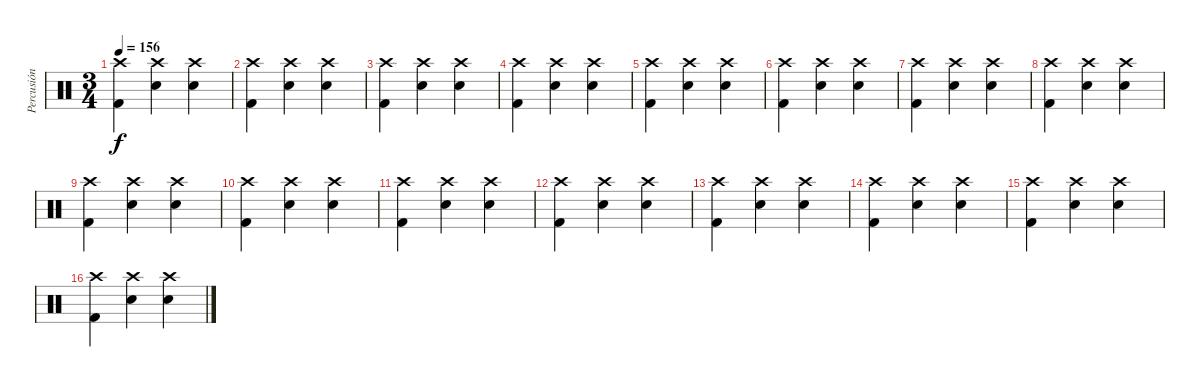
\track ("Percusión" "Percusión") {instrument percussion}
\staff {score}
\articulation defaults
\ts (3 4)
\tempo 156
\clef neutral
\ks c
("Crash high (hit)" "Kick (hit) 2").4{dy f} ("Crash high (hit)" "Electric Snare (hit)").4 ("Crash high (hit)" "Electric Snare (hit)").4 |
("Crash high (hit)" "Kick (hit) 2").4 ("Crash high (hit)" "Electric Snare (hit)").4 ("Crash high (hit)" "Electric Snare (hit)").4 |
("Crash high (hit)" "Kick (hit) 2").4 ("Crash high (hit)" "Electric Snare (hit)").4 ("Crash high (hit)" "Electric Snare (hit)").4 |
("Crash high (hit)" "Kick (hit) 2").4 ("Crash high (hit)" "Electric Snare (hit)").4 ("Crash high (hit)" "Electric Snare (hit)").4 |
("Crash high (hit)" "Kick (hit) 2").4 ("Crash high (hit)" "Electric Snare (hit)").4 ("Crash high (hit)" "Electric Snare (hit)").4 |
("Crash high (hit)" "Kick (hit) 2").4 ("Crash high (hit)" "Electric Snare (hit)").4 ("Crash high (hit)" "Electric Snare (hit)").4 |
("Crash high (hit)" "Kick (hit) 2").4 ("Crash high (hit)" "Electric Snare (hit)").4 ("Crash high (hit)" "Electric Snare (hit)").4 |
("Crash high (hit)" "Kick (hit) 2").4 ("Crash high (hit)" "Electric Snare (hit)").4 ("Crash high (hit)" "Electric Snare (hit)").4 |
("Crash high (hit)" "Kick (hit) 2").4 ("Crash high (hit)" "Electric Snare (hit)").4 ("Crash high (hit)" "Electric Snare (hit)").4 |
("Crash high (hit)" "Kick (hit) 2").4 ("Crash high (hit)" "Electric Snare (hit)").4 ("Crash high (hit)" "Electric Snare (hit)").4 |
("Crash high (hit)" "Kick (hit) 2").4 ("Crash high (hit)" "Electric Snare (hit)").4 ("Crash high (hit)" "Electric Snare (hit)").4 |
("Crash high (hit)" "Kick (hit) 2").4 ("Crash high (hit)" "Electric Snare (hit)").4 ("Crash high (hit)" "Electric Snare (hit)").4 |
("Crash high (hit)" "Kick (hit) 2").4 ("Crash high (hit)" "Electric Snare (hit)").4 ("Crash high (hit)" "Electric Snare (hit)").4 |
("Crash high (hit)" "Kick (hit) 2").4 ("Crash high (hit)" "Electric Snare (hit)").4 ("Crash high (hit)" "Electric Snare (hit)").4 |
("Crash high (hit)" "Kick (hit) 2").4 ("Crash high (hit)" "Electric Snare (hit)").4 ("Crash high (hit)" "Electric Snare (hit)").4 |
("Crash high (hit)" "Kick (hit) 2").4 ("Crash high (hit)" "Electric Snare (hit)").4 ("Crash high (hit)" "Electric Snare (hit)").4
